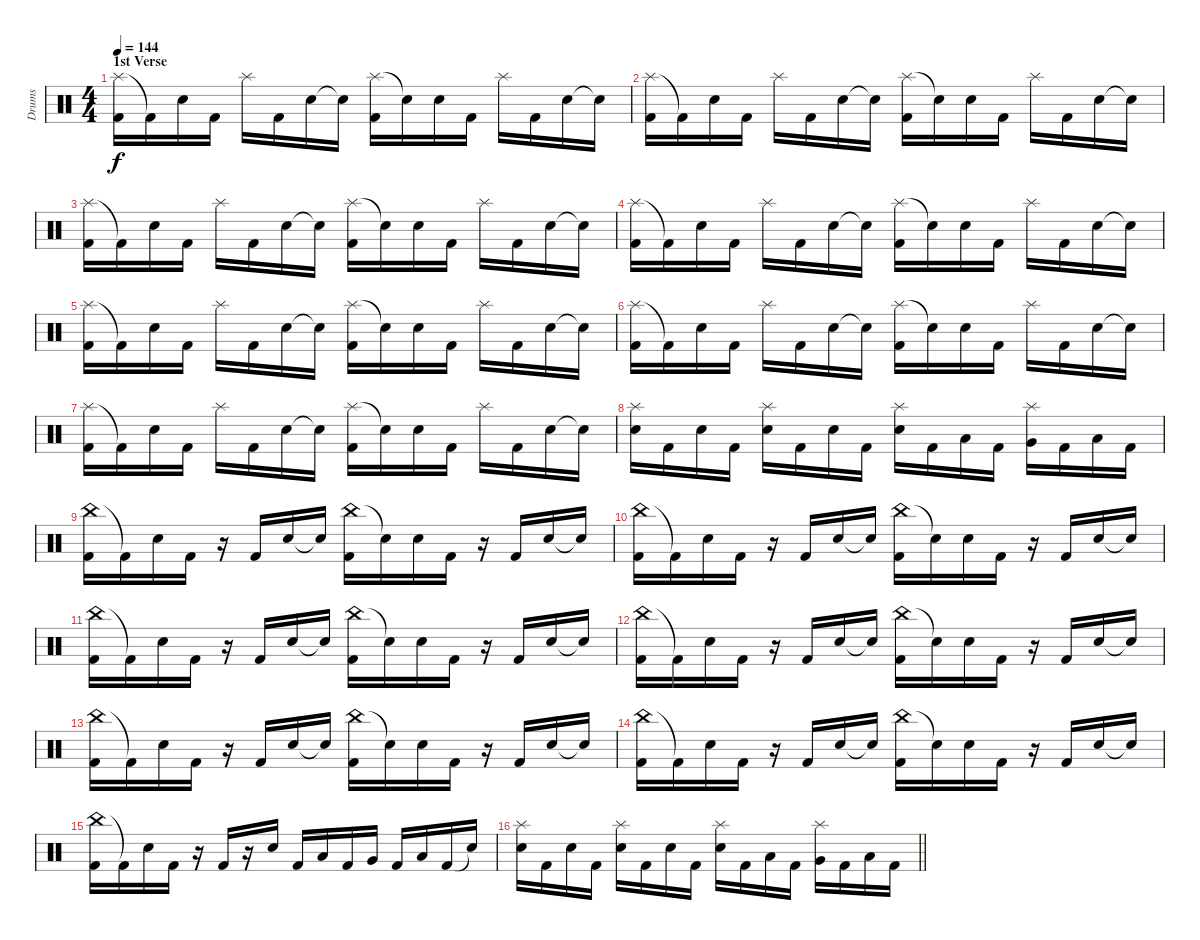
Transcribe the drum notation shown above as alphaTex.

\track ("Drums" "Drums") {instrument percussion}
\staff {score}
\articulation defaults
\ts (4 4)
\section ("" "1st Verse")
\tempo 144
\clef neutral
\ks c
("Splash (hit)" "Kick (hit) 2").16{dy f} "Kick (hit) 2"{t}.16 "Electric Snare (hit)".16 "Kick (hit) 2".16 "Splash (hit)".16 "Kick (hit) 2".16 "Electric Snare (hit)".16 "Snare (hit)"{t}.16 ("Splash (hit)" "Kick (hit) 2").16 "Snare (hit)"{t}.16 "Electric Snare (hit)".16 "Kick (hit) 2".16 "Splash (hit)".16 "Kick (hit) 2".16 "Electric Snare (hit)".16 "Snare (hit)"{t}.16 |
("Splash (hit)" "Kick (hit) 2").16 "Kick (hit) 2"{t}.16 "Electric Snare (hit)".16 "Kick (hit) 2".16 "Splash (hit)".16 "Kick (hit) 2".16 "Electric Snare (hit)".16 "Snare (hit)"{t}.16 ("Splash (hit)" "Kick (hit) 2").16 "Snare (hit)"{t}.16 "Electric Snare (hit)".16 "Kick (hit) 2".16 "Splash (hit)".16 "Kick (hit) 2".16 "Electric Snare (hit)".16 "Snare (hit)"{t}.16 |
("Splash (hit)" "Kick (hit) 2").16 "Kick (hit) 2"{t}.16 "Electric Snare (hit)".16 "Kick (hit) 2".16 "Splash (hit)".16 "Kick (hit) 2".16 "Electric Snare (hit)".16 "Snare (hit)"{t}.16 ("Splash (hit)" "Kick (hit) 2").16 "Snare (hit)"{t}.16 "Electric Snare (hit)".16 "Kick (hit) 2".16 "Splash (hit)".16 "Kick (hit) 2".16 "Electric Snare (hit)".16 "Snare (hit)"{t}.16 |
("Splash (hit)" "Kick (hit) 2").16 "Kick (hit) 2"{t}.16 "Electric Snare (hit)".16 "Kick (hit) 2".16 "Splash (hit)".16 "Kick (hit) 2".16 "Electric Snare (hit)".16 "Snare (hit)"{t}.16 ("Splash (hit)" "Kick (hit) 2").16 "Snare (hit)"{t}.16 "Electric Snare (hit)".16 "Kick (hit) 2".16 "Splash (hit)".16 "Kick (hit) 2".16 "Electric Snare (hit)".16 "Snare (hit)"{t}.16 |
("Splash (hit)" "Kick (hit) 2").16 "Kick (hit) 2"{t}.16 "Electric Snare (hit)".16 "Kick (hit) 2".16 "Splash (hit)".16 "Kick (hit) 2".16 "Electric Snare (hit)".16 "Snare (hit)"{t}.16 ("Splash (hit)" "Kick (hit) 2").16 "Snare (hit)"{t}.16 "Electric Snare (hit)".16 "Kick (hit) 2".16 "Splash (hit)".16 "Kick (hit) 2".16 "Electric Snare (hit)".16 "Snare (hit)"{t}.16 |
("Splash (hit)" "Kick (hit) 2").16 "Kick (hit) 2"{t}.16 "Electric Snare (hit)".16 "Kick (hit) 2".16 "Splash (hit)".16 "Kick (hit) 2".16 "Electric Snare (hit)".16 "Snare (hit)"{t}.16 ("Splash (hit)" "Kick (hit) 2").16 "Snare (hit)"{t}.16 "Electric Snare (hit)".16 "Kick (hit) 2".16 "Splash (hit)".16 "Kick (hit) 2".16 "Electric Snare (hit)".16 "Snare (hit)"{t}.16 |
("Splash (hit)" "Kick (hit) 2").16 "Kick (hit) 2"{t}.16 "Electric Snare (hit)".16 "Kick (hit) 2".16 "Splash (hit)".16 "Kick (hit) 2".16 "Electric Snare (hit)".16 "Snare (hit)"{t}.16 ("Splash (hit)" "Kick (hit) 2").16 "Snare (hit)"{t}.16 "Electric Snare (hit)".16 "Kick (hit) 2".16 "Splash (hit)".16 "Kick (hit) 2".16 "Electric Snare (hit)".16 "Snare (hit)"{t}.16 |
("Splash (hit)" "Electric Snare (hit)").16 "Kick (hit) 2".16 "Electric Snare (hit)".16 "Kick (hit) 2".16 ("Splash (hit)" "Electric Snare (hit)").16 "Kick (hit) 2".16 "Electric Snare (hit)".16 "Kick (hit) 2".16 ("Splash (hit)" "Electric Snare (hit)").16 "Kick (hit) 2".16 "Low Tom (hit)".16 "Kick (hit) 2".16 ("Splash (hit)" "Very Low Tom (hit)").16 "Kick (hit) 2".16 "Low Floor Tom (hit)".16 "Kick (hit) 2".16 |
("China (hit)" "Kick (hit) 2").16 "Kick (hit) 2"{t}.16 "Electric Snare (hit)".16 "Kick (hit) 2".16 r.16 "Kick (hit) 2".16 "Electric Snare (hit)".16 "Snare (hit)"{t}.16 ("China (hit)" "Kick (hit) 2").16 "Snare (hit)"{t}.16 "Electric Snare (hit)".16 "Kick (hit) 2".16 r.16 "Kick (hit) 2".16 "Electric Snare (hit)".16 "Snare (hit)"{t}.16 |
("China (hit)" "Kick (hit) 2").16 "Kick (hit) 2"{t}.16 "Electric Snare (hit)".16 "Kick (hit) 2".16 r.16 "Kick (hit) 2".16 "Electric Snare (hit)".16 "Snare (hit)"{t}.16 ("China (hit)" "Kick (hit) 2").16 "Snare (hit)"{t}.16 "Electric Snare (hit)".16 "Kick (hit) 2".16 r.16 "Kick (hit) 2".16 "Electric Snare (hit)".16 "Snare (hit)"{t}.16 |
("China (hit)" "Kick (hit) 2").16 "Kick (hit) 2"{t}.16 "Electric Snare (hit)".16 "Kick (hit) 2".16 r.16 "Kick (hit) 2".16 "Electric Snare (hit)".16 "Snare (hit)"{t}.16 ("China (hit)" "Kick (hit) 2").16 "Snare (hit)"{t}.16 "Electric Snare (hit)".16 "Kick (hit) 2".16 r.16 "Kick (hit) 2".16 "Electric Snare (hit)".16 "Snare (hit)"{t}.16 |
("China (hit)" "Kick (hit) 2").16 "Kick (hit) 2"{t}.16 "Electric Snare (hit)".16 "Kick (hit) 2".16 r.16 "Kick (hit) 2".16 "Electric Snare (hit)".16 "Snare (hit)"{t}.16 ("China (hit)" "Kick (hit) 2").16 "Snare (hit)"{t}.16 "Electric Snare (hit)".16 "Kick (hit) 2".16 r.16 "Kick (hit) 2".16 "Electric Snare (hit)".16 "Snare (hit)"{t}.16 |
("China (hit)" "Kick (hit) 2").16 "Kick (hit) 2"{t}.16 "Electric Snare (hit)".16 "Kick (hit) 2".16 r.16 "Kick (hit) 2".16 "Electric Snare (hit)".16 "Snare (hit)"{t}.16 ("China (hit)" "Kick (hit) 2").16 "Snare (hit)"{t}.16 "Electric Snare (hit)".16 "Kick (hit) 2".16 r.16 "Kick (hit) 2".16 "Electric Snare (hit)".16 "Snare (hit)"{t}.16 |
("China (hit)" "Kick (hit) 2").16 "Kick (hit) 2"{t}.16 "Electric Snare (hit)".16 "Kick (hit) 2".16 r.16 "Kick (hit) 2".16 "Electric Snare (hit)".16 "Snare (hit)"{t}.16 ("China (hit)" "Kick (hit) 2").16 "Snare (hit)"{t}.16 "Electric Snare (hit)".16 "Kick (hit) 2".16 r.16 "Kick (hit) 2".16 "Electric Snare (hit)".16 "Snare (hit)"{t}.16 |
("China (hit)" "Kick (hit) 2").16 "Kick (hit) 2"{t}.16 "Electric Snare (hit)".16 "Kick (hit) 2".16 r.16 "Kick (hit) 2".16 r.16 "Electric Snare (hit)".16 "Kick (hit) 2".16 "Low Tom (hit)".16 "Kick (hit) 2".16 "Very Low Tom (hit)".16 "Kick (hit) 2".16 "Low Floor Tom (hit)".16 "Kick (hit) 2".16 "Snare (hit)"{t}.16 |
\barLineRight lightlight
("Splash (hit)" "Electric Snare (hit)").16 "Kick (hit) 2".16 "Electric Snare (hit)".16 "Kick (hit) 2".16 ("Splash (hit)" "Electric Snare (hit)").16 "Kick (hit) 2".16 "Electric Snare (hit)".16 "Kick (hit) 2".16 ("Splash (hit)" "Electric Snare (hit)").16 "Kick (hit) 2".16 "Low Tom (hit)".16 "Kick (hit) 2".16 ("Splash (hit)" "Very Low Tom (hit)").16 "Kick (hit) 2".16 "Low Floor Tom (hit)".16 "Kick (hit) 2".16
